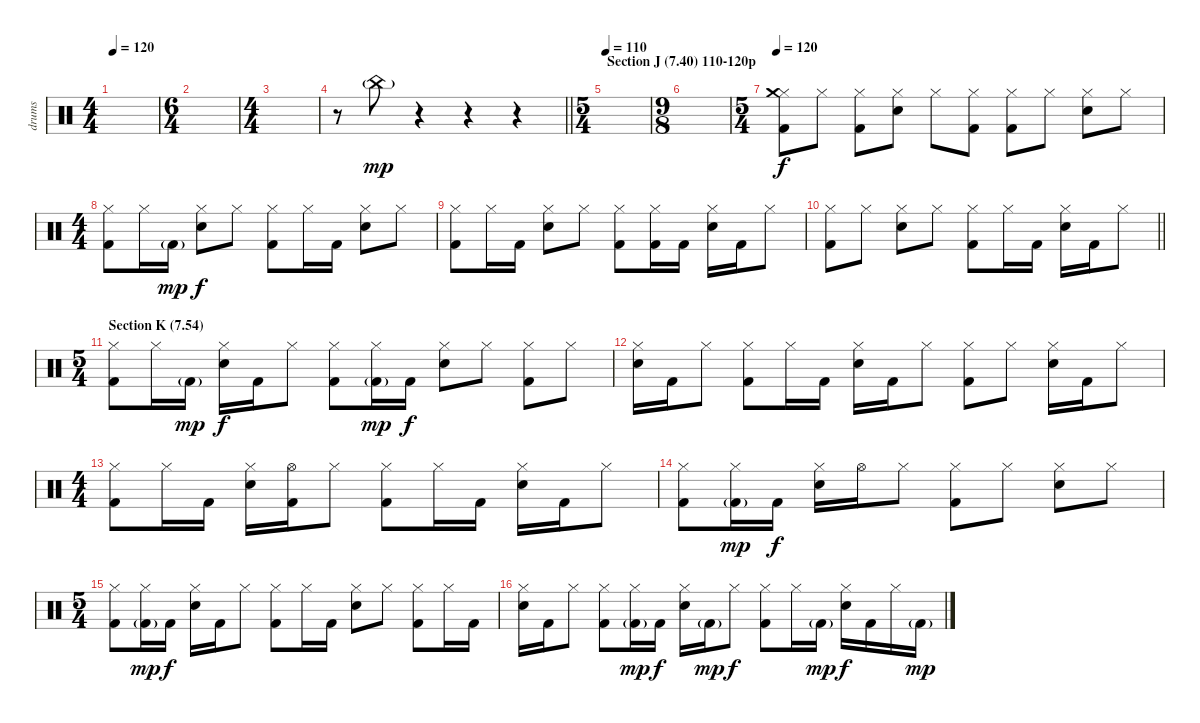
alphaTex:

\track ("drums" "drums") {instrument percussion}
\staff {score}
\articulation defaults
\ts (4 4)
\tempo 120
\clef neutral
\ks c
|
\ts (6 4)
|
\ts (4 4)
|
\barLineRight lightlight
r.8 "China (hit)"{g}.8{dy mp} r.4 r.4 r.4 |
\ts (5 4)
\section ("" "Section J (7.40) 110-120p")
\tempo 110
|
\ts (9 8)
|
\ts (5 4)
\tempo 120
("Hi-Hat (closed)" "Crash medium (hit)" "Kick (hit) 2").8{dy f} "Hi-Hat (closed)".8 ("Hi-Hat (closed)" "Kick (hit) 2").8 ("Hi-Hat (closed)" "Electric Snare (hit)").8 "Hi-Hat (closed)".8 ("Hi-Hat (closed)" "Kick (hit) 2").8 ("Hi-Hat (closed)" "Kick (hit) 2").8 "Hi-Hat (closed)".8 ("Hi-Hat (closed)" "Electric Snare (hit)").8 "Hi-Hat (closed)".8 |
\ts (4 4)
("Hi-Hat (closed)" "Kick (hit) 2").8 "Hi-Hat (closed)".16 "Kick (hit) 2"{g}.16{dy mp} ("Hi-Hat (closed)" "Electric Snare (hit)").8{dy f} "Hi-Hat (closed)".8 ("Hi-Hat (closed)" "Kick (hit) 2").8 "Hi-Hat (closed)".16 "Kick (hit) 2".16 ("Hi-Hat (closed)" "Electric Snare (hit)").8 "Hi-Hat (closed)".8 |
("Hi-Hat (closed)" "Kick (hit) 2").8 "Hi-Hat (closed)".16 "Kick (hit) 2".16 ("Hi-Hat (closed)" "Electric Snare (hit)").8 "Hi-Hat (closed)".8 ("Hi-Hat (closed)" "Kick (hit) 2").8 ("Hi-Hat (closed)" "Kick (hit) 2").16 "Kick (hit) 2".16 ("Hi-Hat (closed)" "Electric Snare (hit)").16 "Kick (hit) 2".16 "Hi-Hat (closed)".8 |
\barLineRight lightlight
("Hi-Hat (closed)" "Kick (hit) 2").8 "Hi-Hat (closed)".8 ("Hi-Hat (closed)" "Electric Snare (hit)").8 "Hi-Hat (closed)".8 ("Hi-Hat (closed)" "Kick (hit) 2").8 "Hi-Hat (closed)".16 "Kick (hit) 2".16 ("Hi-Hat (closed)" "Electric Snare (hit)").16 "Kick (hit) 2".16 "Hi-Hat (closed)".8 |
\ts (5 4)
\section ("" "Section K (7.54)")
("Hi-Hat (closed)" "Kick (hit) 2").8 "Hi-Hat (closed)".16 "Kick (hit) 2"{g}.16{dy mp} ("Hi-Hat (closed)" "Electric Snare (hit)").16{dy f} "Kick (hit) 2".16 "Hi-Hat (closed)".8 ("Hi-Hat (closed)" "Kick (hit) 2").8 ("Hi-Hat (closed)" "Kick (hit) 2"{g}).16{dy mp} "Kick (hit) 2".16{dy f} ("Hi-Hat (closed)" "Electric Snare (hit)").8 "Hi-Hat (closed)".8 ("Hi-Hat (closed)" "Kick (hit) 2").8 "Hi-Hat (closed)".8 |
("Hi-Hat (closed)" "Electric Snare (hit)").16 "Kick (hit) 2".16 "Hi-Hat (closed)".8 ("Hi-Hat (closed)" "Kick (hit) 2").8 "Hi-Hat (closed)".16 "Kick (hit) 2".16 ("Hi-Hat (closed)" "Electric Snare (hit)").16 "Kick (hit) 2".16 "Hi-Hat (closed)".8 ("Hi-Hat (closed)" "Kick (hit) 2").8 "Hi-Hat (closed)".8 ("Hi-Hat (closed)" "Electric Snare (hit)").16 "Kick (hit) 2".16 "Hi-Hat (closed)".8 |
\ts (4 4)
("Hi-Hat (closed)" "Kick (hit) 2").8 "Hi-Hat (closed)".16 "Kick (hit) 2".16 ("Hi-Hat (closed)" "Electric Snare (hit)").16 ("Hi-Hat (open)" "Kick (hit) 2").16 "Hi-Hat (closed)".8 ("Hi-Hat (closed)" "Kick (hit) 2").8 "Hi-Hat (closed)".16 "Kick (hit) 2".16 ("Hi-Hat (closed)" "Electric Snare (hit)").16 "Kick (hit) 2".16 "Hi-Hat (closed)".8 |
("Hi-Hat (closed)" "Kick (hit) 2").8 ("Hi-Hat (closed)" "Kick (hit) 2"{g}).16{dy mp} "Kick (hit) 2".16{dy f} ("Hi-Hat (closed)" "Electric Snare (hit)").16 "Hi-Hat (open)".16 "Hi-Hat (closed)".8 ("Hi-Hat (closed)" "Kick (hit) 2").8 "Hi-Hat (closed)".8 ("Hi-Hat (closed)" "Electric Snare (hit)").8 "Hi-Hat (closed)".8 |
\ts (5 4)
("Hi-Hat (closed)" "Kick (hit) 2").8 ("Hi-Hat (closed)" "Kick (hit) 2"{g}).16{dy mp} "Kick (hit) 2".16{dy f} ("Hi-Hat (closed)" "Electric Snare (hit)").16 "Kick (hit) 2".16 "Hi-Hat (closed)".8 ("Hi-Hat (closed)" "Kick (hit) 2").8 "Hi-Hat (closed)".16 "Kick (hit) 2".16 ("Hi-Hat (closed)" "Electric Snare (hit)").8 "Hi-Hat (closed)".8 ("Hi-Hat (closed)" "Kick (hit) 2").8 "Hi-Hat (closed)".16 "Kick (hit) 2".16 |
("Hi-Hat (closed)" "Electric Snare (hit)").16 "Kick (hit) 2".16 "Hi-Hat (closed)".8 ("Hi-Hat (closed)" "Kick (hit) 2").8 ("Hi-Hat (closed)" "Kick (hit) 2"{g}).16{dy mp} "Kick (hit) 2".16{dy f} ("Hi-Hat (closed)" "Electric Snare (hit)").16 "Kick (hit) 2"{g}.16{dy mp} "Hi-Hat (closed)".8{dy f} ("Hi-Hat (closed)" "Kick (hit) 2").8 "Hi-Hat (closed)".16 "Kick (hit) 2"{g}.16{dy mp} ("Hi-Hat (closed)" "Electric Snare (hit)").16{dy f} "Kick (hit) 2".16 "Hi-Hat (closed)".16 "Kick (hit) 2"{g}.16{dy mp}
